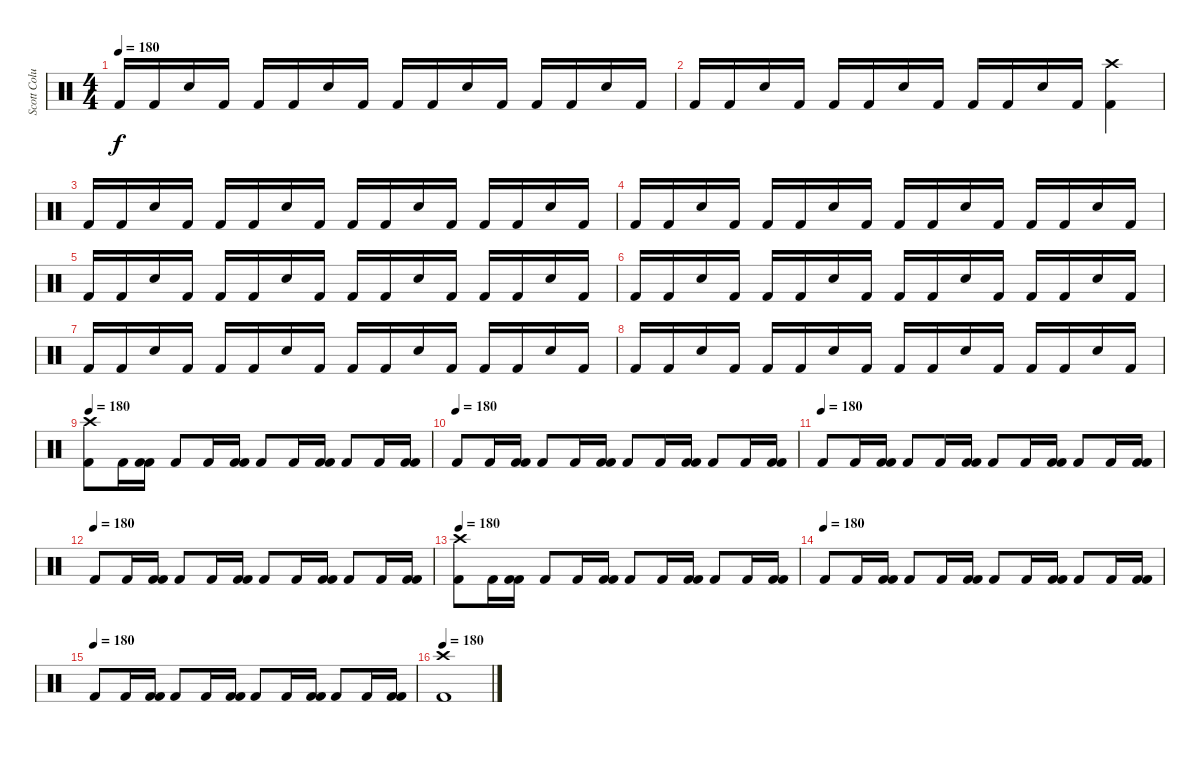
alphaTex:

\track ("Scott Columbus" "Scott Colu") {instrument percussion}
\staff {score}
\articulation defaults
\ts (4 4)
\tempo 180
\clef neutral
\ks c "Kick (hit) 2".16{dy f} "Kick (hit) 2".16 "Snare (hit) 2".16 "Kick (hit) 2".16 "Kick (hit) 2".16 "Kick (hit) 2".16 "Snare (hit) 2".16 "Kick (hit) 2".16 "Kick (hit) 2".16 "Kick (hit) 2".16 "Snare (hit) 2".16 "Kick (hit) 2".16 "Kick (hit) 2".16 "Kick (hit) 2".16 "Snare (hit) 2".16 "Kick (hit) 2".16
|
"Kick (hit) 2".16 "Kick (hit) 2".16 "Snare (hit) 2".16 "Kick (hit) 2".16 "Kick (hit) 2".16 "Kick (hit) 2".16 "Snare (hit) 2".16 "Kick (hit) 2".16 "Kick (hit) 2".16 "Kick (hit) 2".16 "Snare (hit) 2".16 "Kick (hit) 2".16 ("Kick (hit) 2" "Crash high (hit)").4 |
"Kick (hit) 2".16 "Kick (hit) 2".16 "Snare (hit) 2".16 "Kick (hit) 2".16 "Kick (hit) 2".16 "Kick (hit) 2".16 "Snare (hit) 2".16 "Kick (hit) 2".16 "Kick (hit) 2".16 "Kick (hit) 2".16 "Snare (hit) 2".16 "Kick (hit) 2".16 "Kick (hit) 2".16 "Kick (hit) 2".16 "Snare (hit) 2".16 "Kick (hit) 2".16 |
"Kick (hit) 2".16 "Kick (hit) 2".16 "Snare (hit) 2".16 "Kick (hit) 2".16 "Kick (hit) 2".16 "Kick (hit) 2".16 "Snare (hit) 2".16 "Kick (hit) 2".16 "Kick (hit) 2".16 "Kick (hit) 2".16 "Snare (hit) 2".16 "Kick (hit) 2".16 "Kick (hit) 2".16 "Kick (hit) 2".16 "Snare (hit) 2".16 "Kick (hit) 2".16 |
"Kick (hit) 2".16 "Kick (hit) 2".16 "Snare (hit) 2".16 "Kick (hit) 2".16 "Kick (hit) 2".16 "Kick (hit) 2".16 "Snare (hit) 2".16 "Kick (hit) 2".16 "Kick (hit) 2".16 "Kick (hit) 2".16 "Snare (hit) 2".16 "Kick (hit) 2".16 "Kick (hit) 2".16 "Kick (hit) 2".16 "Snare (hit) 2".16 "Kick (hit) 2".16 |
"Kick (hit) 2".16 "Kick (hit) 2".16 "Snare (hit) 2".16 "Kick (hit) 2".16 "Kick (hit) 2".16 "Kick (hit) 2".16 "Snare (hit) 2".16 "Kick (hit) 2".16 "Kick (hit) 2".16 "Kick (hit) 2".16 "Snare (hit) 2".16 "Kick (hit) 2".16 "Kick (hit) 2".16 "Kick (hit) 2".16 "Snare (hit) 2".16 "Kick (hit) 2".16 |
"Kick (hit) 2".16 "Kick (hit) 2".16 "Snare (hit) 2".16 "Kick (hit) 2".16 "Kick (hit) 2".16 "Kick (hit) 2".16 "Snare (hit) 2".16 "Kick (hit) 2".16 "Kick (hit) 2".16 "Kick (hit) 2".16 "Snare (hit) 2".16 "Kick (hit) 2".16 "Kick (hit) 2".16 "Kick (hit) 2".16 "Snare (hit) 2".16 "Kick (hit) 2".16 |
"Kick (hit) 2".16 "Kick (hit) 2".16 "Snare (hit) 2".16 "Kick (hit) 2".16 "Kick (hit) 2".16 "Kick (hit) 2".16 "Snare (hit) 2".16 "Kick (hit) 2".16 "Kick (hit) 2".16 "Kick (hit) 2".16 "Snare (hit) 2".16 "Kick (hit) 2".16 "Kick (hit) 2".16 "Kick (hit) 2".16 "Snare (hit) 2".16 "Kick (hit) 2".16 |
\tempo 180
("Crash high (hit)" "Kick (hit) 2").8 "Kick (hit) 2".16 ("Kick (hit) 2" "Kick (hit) 2").16 "Kick (hit) 2".8 "Kick (hit) 2".16 ("Kick (hit) 2" "Kick (hit) 2").16 "Kick (hit) 2".8 "Kick (hit) 2".16 ("Kick (hit) 2" "Kick (hit) 2").16 "Kick (hit) 2".8 "Kick (hit) 2".16 ("Kick (hit) 2" "Kick (hit) 2").16 |
\tempo (180)
"Kick (hit) 2".8 "Kick (hit) 2".16 ("Kick (hit) 2" "Kick (hit) 2").16 "Kick (hit) 2".8 "Kick (hit) 2".16 ("Kick (hit) 2" "Kick (hit) 2").16 "Kick (hit) 2".8 "Kick (hit) 2".16 ("Kick (hit) 2" "Kick (hit) 2").16 "Kick (hit) 2".8 "Kick (hit) 2".16 ("Kick (hit) 2" "Kick (hit) 2").16 |
\tempo (180)
"Kick (hit) 2".8 "Kick (hit) 2".16 ("Kick (hit) 2" "Kick (hit) 2").16 "Kick (hit) 2".8 "Kick (hit) 2".16 ("Kick (hit) 2" "Kick (hit) 2").16 "Kick (hit) 2".8 "Kick (hit) 2".16 ("Kick (hit) 2" "Kick (hit) 2").16 "Kick (hit) 2".8 "Kick (hit) 2".16 ("Kick (hit) 2" "Kick (hit) 2").16 |
\tempo (180)
"Kick (hit) 2".8 "Kick (hit) 2".16 ("Kick (hit) 2" "Kick (hit) 2").16 "Kick (hit) 2".8 "Kick (hit) 2".16 ("Kick (hit) 2" "Kick (hit) 2").16 "Kick (hit) 2".8 "Kick (hit) 2".16 ("Kick (hit) 2" "Kick (hit) 2").16 "Kick (hit) 2".8 "Kick (hit) 2".16 ("Kick (hit) 2" "Kick (hit) 2").16 |
\tempo 180
("Crash high (hit)" "Kick (hit) 2").8 "Kick (hit) 2".16 ("Kick (hit) 2" "Kick (hit) 2").16 "Kick (hit) 2".8 "Kick (hit) 2".16 ("Kick (hit) 2" "Kick (hit) 2").16 "Kick (hit) 2".8 "Kick (hit) 2".16 ("Kick (hit) 2" "Kick (hit) 2").16 "Kick (hit) 2".8 "Kick (hit) 2".16 ("Kick (hit) 2" "Kick (hit) 2").16 |
\tempo (180)
"Kick (hit) 2".8 "Kick (hit) 2".16 ("Kick (hit) 2" "Kick (hit) 2").16 "Kick (hit) 2".8 "Kick (hit) 2".16 ("Kick (hit) 2" "Kick (hit) 2").16 "Kick (hit) 2".8 "Kick (hit) 2".16 ("Kick (hit) 2" "Kick (hit) 2").16 "Kick (hit) 2".8 "Kick (hit) 2".16 ("Kick (hit) 2" "Kick (hit) 2").16 |
\tempo (180)
"Kick (hit) 2".8 "Kick (hit) 2".16 ("Kick (hit) 2" "Kick (hit) 2").16 "Kick (hit) 2".8 "Kick (hit) 2".16 ("Kick (hit) 2" "Kick (hit) 2").16 "Kick (hit) 2".8 "Kick (hit) 2".16 ("Kick (hit) 2" "Kick (hit) 2").16 "Kick (hit) 2".8 "Kick (hit) 2".16 ("Kick (hit) 2" "Kick (hit) 2").16 |
\tempo 180
("Crash high (hit)" "Kick (hit) 2").1
